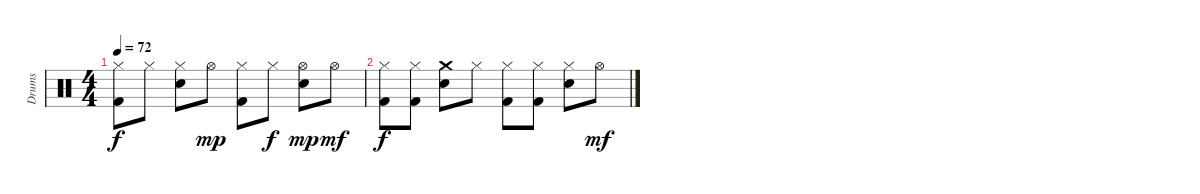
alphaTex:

\track ("Drums" "Drums") {instrument percussion}
\staff {score}
\articulation defaults
\ts (4 4)
\tempo 72
\clef neutral
\ks c
("Hi-Hat (closed)" "Kick (hit) 2").8{dy f} "Hi-Hat (closed)".8 ("Hi-Hat (closed)" "Electric Snare (hit)").8 "Hi-Hat (open)".8{dy mp} ("Hi-Hat (closed)" "Kick (hit) 2").8 "Hi-Hat (closed)".8{dy f} ("Hi-Hat (open)" "Electric Snare (hit)").8{dy mp} "Hi-Hat (open)".8{dy mf} |
("Hi-Hat (closed)" "Kick (hit) 2").8{dy f} ("Hi-Hat (closed)" "Kick (hit) 2").8 ("Crash medium (hit)" "Electric Snare (hit)").8 "Hi-Hat (closed)".8 ("Hi-Hat (closed)" "Kick (hit) 2").8 ("Hi-Hat (closed)" "Kick (hit) 2").8 ("Hi-Hat (closed)" "Electric Snare (hit)").8 "Hi-Hat (open)".8{dy mf}
